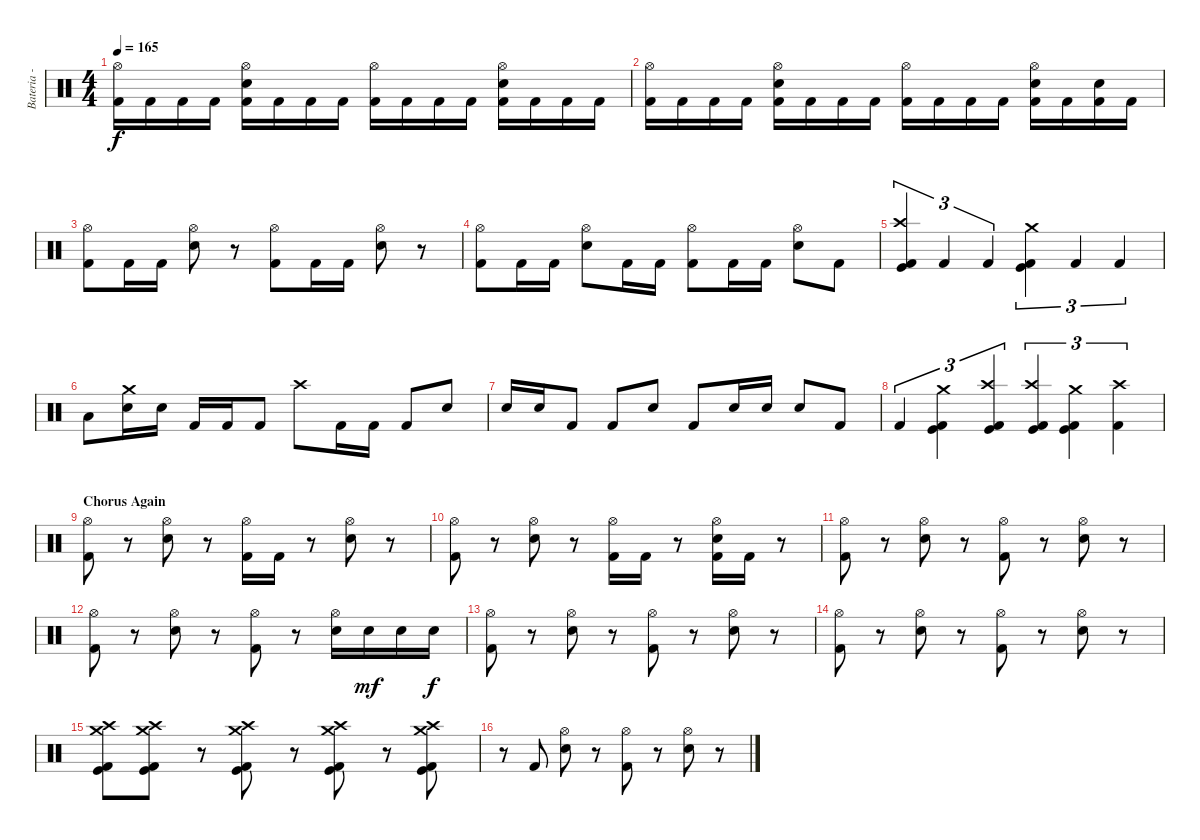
\track ("Bateria - Drums" "Bateria - ") {instrument percussion}
\staff {score}
\articulation defaults
\ts (4 4)
\tempo 165
\clef neutral
\ks c
("Hi-Hat (open)" "Kick (hit) 2").16{dy f} "Kick (hit) 2".16 "Kick (hit) 2".16 "Kick (hit) 2".16 ("Hi-Hat (open)" "Electric Snare (hit)" "Kick (hit) 2").16 "Kick (hit) 2".16 "Kick (hit) 2".16 "Kick (hit) 2".16 ("Hi-Hat (open)" "Kick (hit) 2").16 "Kick (hit) 2".16 "Kick (hit) 2".16 "Kick (hit) 2".16 ("Hi-Hat (open)" "Electric Snare (hit)" "Kick (hit) 2").16 "Kick (hit) 2".16 "Kick (hit) 2".16 "Kick (hit) 2".16 |
("Hi-Hat (open)" "Kick (hit) 2").16 "Kick (hit) 2".16 "Kick (hit) 2".16 "Kick (hit) 2".16 ("Hi-Hat (open)" "Electric Snare (hit)" "Kick (hit) 2").16 "Kick (hit) 2".16 "Kick (hit) 2".16 "Kick (hit) 2".16 ("Hi-Hat (open)" "Kick (hit) 2").16 "Kick (hit) 2".16 "Kick (hit) 2".16 "Kick (hit) 2".16 ("Hi-Hat (open)" "Electric Snare (hit)" "Kick (hit) 2").16 "Kick (hit) 2".16 ("Electric Snare (hit)" "Kick (hit) 2").16 "Kick (hit) 2".16 |
("Hi-Hat (open)" "Kick (hit) 2").8 "Kick (hit) 2".16 "Kick (hit) 2".16 ("Hi-Hat (open)" "Electric Snare (hit)").8 r.8 ("Hi-Hat (open)" "Kick (hit) 2").8 "Kick (hit) 2".16 "Kick (hit) 2".16 ("Hi-Hat (open)" "Electric Snare (hit)").8 r.8 |
("Hi-Hat (open)" "Kick (hit) 2").8 "Kick (hit) 2".16 "Kick (hit) 2".16 ("Hi-Hat (open)" "Electric Snare (hit)").8 "Kick (hit) 2".16 "Kick (hit) 2".16 ("Hi-Hat (open)" "Kick (hit) 2").8 "Kick (hit) 2".16 "Kick (hit) 2".16 ("Hi-Hat (open)" "Electric Snare (hit)").8 "Kick (hit) 2".8 |
("Crash high (hit)" "Kick (hit)" "Kick (hit) 2").4{tu (3 2)} "Kick (hit) 2".4{tu (3 2)} "Kick (hit) 2".4{tu (3 2)} ("Crash medium (hit)" "Kick (hit)" "Kick (hit) 2").4{tu (3 2)} "Kick (hit) 2".4{tu (3 2)} "Kick (hit) 2".4{tu (3 2)} |
"Low Tom (hit)".8 ("Crash medium (hit)" "Electric Snare (hit)").16 "Electric Snare (hit)".16 "Kick (hit) 2".16 "Kick (hit) 2".16 "Kick (hit) 2".8 "Crash high (hit)".8 "Kick (hit) 2".16 "Kick (hit) 2".16 "Kick (hit) 2".8 "Electric Snare (hit)".8 |
"Electric Snare (hit)".16 "Electric Snare (hit)".16 "Kick (hit) 2".8 "Kick (hit) 2".8 "Electric Snare (hit)".8 "Kick (hit) 2".8 "Electric Snare (hit)".16 "Electric Snare (hit)".16 "Electric Snare (hit)".8 "Kick (hit) 2".8 |
"Kick (hit) 2".4{tu (3 2)} ("Crash medium (hit)" "Kick (hit)" "Kick (hit) 2").4{tu (3 2)} ("Crash high (hit)" "Kick (hit)" "Kick (hit) 2").4{tu (3 2)} ("Crash high (hit)" "Kick (hit)" "Kick (hit) 2").4{tu (3 2)} ("Crash medium (hit)" "Kick (hit)" "Kick (hit) 2").4{tu (3 2)} ("Crash high (hit)" "Kick (hit) 2").4{tu (3 2)} |
\section ("" "Chorus Again")
("Hi-Hat (open)" "Kick (hit) 2").8 r.8 ("Hi-Hat (open)" "Electric Snare (hit)").8 r.8 ("Hi-Hat (open)" "Kick (hit) 2").16 "Kick (hit) 2".16 r.8 ("Hi-Hat (open)" "Electric Snare (hit)").8 r.8 |
("Hi-Hat (open)" "Kick (hit) 2").8 r.8 ("Hi-Hat (open)" "Electric Snare (hit)").8 r.8 ("Hi-Hat (open)" "Kick (hit) 2").16 "Kick (hit) 2".16 r.8 ("Hi-Hat (open)" "Electric Snare (hit)" "Kick (hit) 2").16 "Kick (hit) 2".16 r.8 |
("Hi-Hat (open)" "Kick (hit) 2").8 r.8 ("Hi-Hat (open)" "Electric Snare (hit)").8 r.8 ("Hi-Hat (open)" "Kick (hit) 2").8 r.8 ("Hi-Hat (open)" "Electric Snare (hit)").8 r.8 |
("Hi-Hat (open)" "Kick (hit) 2").8 r.8 ("Hi-Hat (open)" "Electric Snare (hit)").8 r.8 ("Hi-Hat (open)" "Kick (hit) 2").8 r.8 ("Hi-Hat (open)" "Electric Snare (hit)").16 "Electric Snare (hit)".16{dy mf} "Electric Snare (hit)".16 "Electric Snare (hit)".16{dy f} |
("Hi-Hat (open)" "Kick (hit) 2").8 r.8 ("Hi-Hat (open)" "Electric Snare (hit)").8 r.8 ("Hi-Hat (open)" "Kick (hit) 2").8 r.8 ("Hi-Hat (open)" "Electric Snare (hit)").8 r.8 |
("Hi-Hat (open)" "Kick (hit) 2").8 r.8 ("Hi-Hat (open)" "Electric Snare (hit)").8 r.8 ("Hi-Hat (open)" "Kick (hit) 2").8 r.8 ("Hi-Hat (open)" "Electric Snare (hit)").8 r.8 |
("Crash medium (hit)" "Crash high (hit)" "Kick (hit)" "Kick (hit) 2").8 ("Crash medium (hit)" "Crash high (hit)" "Kick (hit)" "Kick (hit) 2").8 r.8 ("Crash medium (hit)" "Crash high (hit)" "Kick (hit)" "Kick (hit) 2").8 r.8 ("Crash medium (hit)" "Crash high (hit)" "Kick (hit)" "Kick (hit) 2").8 r.8 ("Crash medium (hit)" "Crash high (hit)" "Kick (hit)" "Kick (hit) 2").8 |
r.8 "Kick (hit) 2".8 ("Hi-Hat (open)" "Electric Snare (hit)").8 r.8 ("Hi-Hat (open)" "Kick (hit) 2").8 r.8 ("Hi-Hat (open)" "Electric Snare (hit)").8 r.8
